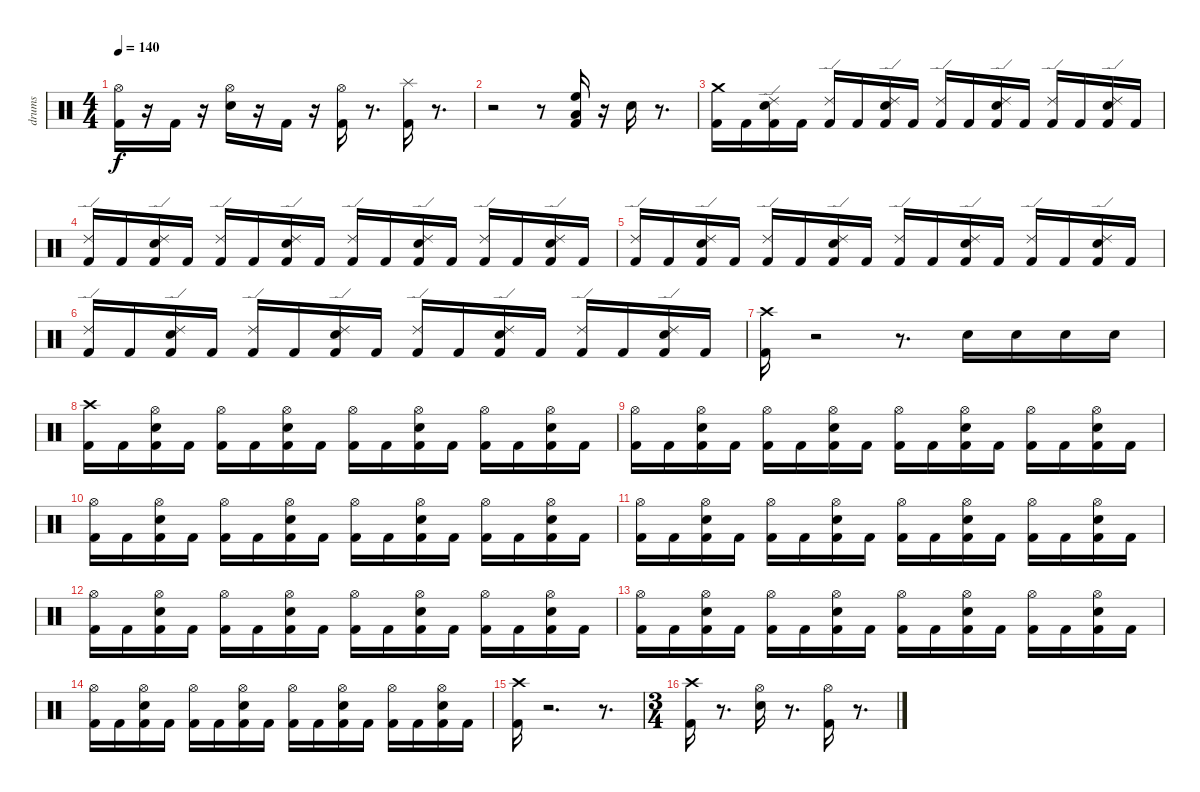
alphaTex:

\track ("drums" "drums") {instrument percussion}
\staff {score}
\articulation defaults
\ts (4 4)
\tempo 140
\clef neutral
\ks c
("Hi-Hat (open)" "Kick (hit) 2").16{dy f} r.16 "Kick (hit) 2".16 r.16 ("Hi-Hat (open)" "Snare (hit) 2").16 r.16 "Kick (hit) 2".16 r.16 ("Hi-Hat (open)" "Kick (hit) 2").16 r.8{d} ("Splash (hit)" "Kick (hit) 2").16 r.8{d} |
r.2 r.8 ("High Floor Tom (hit)" "Low Tom (hit)" "Kick (hit) 2").16 r.16 "Snare (hit) 2".16 r.8{d} |
("Crash medium (hit)" "Kick (hit) 2").16 "Kick (hit) 2".16 ("Kick (hit) 2" "Ride (edge) 2" "Snare (hit) 2").16 "Kick (hit) 2".16 ("Ride (edge) 2" "Kick (hit) 2").16 "Kick (hit) 2".16 ("Kick (hit) 2" "Ride (edge) 2" "Snare (hit) 2").16 "Kick (hit) 2".16 ("Ride (edge) 2" "Kick (hit) 2").16 "Kick (hit) 2".16 ("Kick (hit) 2" "Ride (edge) 2" "Snare (hit) 2").16 "Kick (hit) 2".16 ("Ride (edge) 2" "Kick (hit) 2").16 "Kick (hit) 2".16 ("Kick (hit) 2" "Ride (edge) 2" "Snare (hit) 2").16 "Kick (hit) 2".16 |
("Ride (edge) 2" "Kick (hit) 2").16 "Kick (hit) 2".16 ("Kick (hit) 2" "Ride (edge) 2" "Snare (hit) 2").16 "Kick (hit) 2".16 ("Ride (edge) 2" "Kick (hit) 2").16 "Kick (hit) 2".16 ("Kick (hit) 2" "Ride (edge) 2" "Snare (hit) 2").16 "Kick (hit) 2".16 ("Ride (edge) 2" "Kick (hit) 2").16 "Kick (hit) 2".16 ("Kick (hit) 2" "Ride (edge) 2" "Snare (hit) 2").16 "Kick (hit) 2".16 ("Ride (edge) 2" "Kick (hit) 2").16 "Kick (hit) 2".16 ("Kick (hit) 2" "Ride (edge) 2" "Snare (hit) 2").16 "Kick (hit) 2".16 |
("Ride (edge) 2" "Kick (hit) 2").16 "Kick (hit) 2".16 ("Kick (hit) 2" "Ride (edge) 2" "Snare (hit) 2").16 "Kick (hit) 2".16 ("Ride (edge) 2" "Kick (hit) 2").16 "Kick (hit) 2".16 ("Kick (hit) 2" "Ride (edge) 2" "Snare (hit) 2").16 "Kick (hit) 2".16 ("Ride (edge) 2" "Kick (hit) 2").16 "Kick (hit) 2".16 ("Kick (hit) 2" "Ride (edge) 2" "Snare (hit) 2").16 "Kick (hit) 2".16 ("Ride (edge) 2" "Kick (hit) 2").16 "Kick (hit) 2".16 ("Kick (hit) 2" "Ride (edge) 2" "Snare (hit) 2").16 "Kick (hit) 2".16 |
("Ride (edge) 2" "Kick (hit) 2").16 "Kick (hit) 2".16 ("Kick (hit) 2" "Ride (edge) 2" "Snare (hit) 2").16 "Kick (hit) 2".16 ("Ride (edge) 2" "Kick (hit) 2").16 "Kick (hit) 2".16 ("Kick (hit) 2" "Ride (edge) 2" "Snare (hit) 2").16 "Kick (hit) 2".16 ("Ride (edge) 2" "Kick (hit) 2").16 "Kick (hit) 2".16 ("Kick (hit) 2" "Ride (edge) 2" "Snare (hit) 2").16 "Kick (hit) 2".16 ("Ride (edge) 2" "Kick (hit) 2").16 "Kick (hit) 2".16 ("Kick (hit) 2" "Ride (edge) 2" "Snare (hit) 2").16 "Kick (hit) 2".16 |
("Crash high (hit)" "Kick (hit) 2").16 r.2 r.8{d} "Snare (hit) 2".16 "Snare (hit) 2".16 "Snare (hit) 2".16 "Snare (hit) 2".16 |
("Crash high (hit)" "Kick (hit) 2").16 "Kick (hit) 2".16 ("Hi-Hat (open)" "Kick (hit) 2" "Snare (hit) 2").16 "Kick (hit) 2".16 ("Hi-Hat (open)" "Kick (hit) 2").16 "Kick (hit) 2".16 ("Hi-Hat (open)" "Kick (hit) 2" "Snare (hit) 2").16 "Kick (hit) 2".16 ("Hi-Hat (open)" "Kick (hit) 2").16 "Kick (hit) 2".16 ("Hi-Hat (open)" "Kick (hit) 2" "Snare (hit) 2").16 "Kick (hit) 2".16 ("Hi-Hat (open)" "Kick (hit) 2").16 "Kick (hit) 2".16 ("Hi-Hat (open)" "Kick (hit) 2" "Snare (hit) 2").16 "Kick (hit) 2".16 |
("Hi-Hat (open)" "Kick (hit) 2").16 "Kick (hit) 2".16 ("Hi-Hat (open)" "Kick (hit) 2" "Snare (hit) 2").16 "Kick (hit) 2".16 ("Hi-Hat (open)" "Kick (hit) 2").16 "Kick (hit) 2".16 ("Hi-Hat (open)" "Kick (hit) 2" "Snare (hit) 2").16 "Kick (hit) 2".16 ("Hi-Hat (open)" "Kick (hit) 2").16 "Kick (hit) 2".16 ("Hi-Hat (open)" "Kick (hit) 2" "Snare (hit) 2").16 "Kick (hit) 2".16 ("Hi-Hat (open)" "Kick (hit) 2").16 "Kick (hit) 2".16 ("Hi-Hat (open)" "Kick (hit) 2" "Snare (hit) 2").16 "Kick (hit) 2".16 |
("Hi-Hat (open)" "Kick (hit) 2").16 "Kick (hit) 2".16 ("Hi-Hat (open)" "Kick (hit) 2" "Snare (hit) 2").16 "Kick (hit) 2".16 ("Hi-Hat (open)" "Kick (hit) 2").16 "Kick (hit) 2".16 ("Hi-Hat (open)" "Kick (hit) 2" "Snare (hit) 2").16 "Kick (hit) 2".16 ("Hi-Hat (open)" "Kick (hit) 2").16 "Kick (hit) 2".16 ("Hi-Hat (open)" "Kick (hit) 2" "Snare (hit) 2").16 "Kick (hit) 2".16 ("Hi-Hat (open)" "Kick (hit) 2").16 "Kick (hit) 2".16 ("Hi-Hat (open)" "Kick (hit) 2" "Snare (hit) 2").16 "Kick (hit) 2".16 |
("Hi-Hat (open)" "Kick (hit) 2").16 "Kick (hit) 2".16 ("Hi-Hat (open)" "Kick (hit) 2" "Snare (hit) 2").16 "Kick (hit) 2".16 ("Hi-Hat (open)" "Kick (hit) 2").16 "Kick (hit) 2".16 ("Hi-Hat (open)" "Kick (hit) 2" "Snare (hit) 2").16 "Kick (hit) 2".16 ("Hi-Hat (open)" "Kick (hit) 2").16 "Kick (hit) 2".16 ("Hi-Hat (open)" "Kick (hit) 2" "Snare (hit) 2").16 "Kick (hit) 2".16 ("Hi-Hat (open)" "Kick (hit) 2").16 "Kick (hit) 2".16 ("Hi-Hat (open)" "Kick (hit) 2" "Snare (hit) 2").16 "Kick (hit) 2".16 |
("Hi-Hat (open)" "Kick (hit) 2").16 "Kick (hit) 2".16 ("Hi-Hat (open)" "Kick (hit) 2" "Snare (hit) 2").16 "Kick (hit) 2".16 ("Hi-Hat (open)" "Kick (hit) 2").16 "Kick (hit) 2".16 ("Hi-Hat (open)" "Kick (hit) 2" "Snare (hit) 2").16 "Kick (hit) 2".16 ("Hi-Hat (open)" "Kick (hit) 2").16 "Kick (hit) 2".16 ("Hi-Hat (open)" "Kick (hit) 2" "Snare (hit) 2").16 "Kick (hit) 2".16 ("Hi-Hat (open)" "Kick (hit) 2").16 "Kick (hit) 2".16 ("Hi-Hat (open)" "Kick (hit) 2" "Snare (hit) 2").16 "Kick (hit) 2".16 |
("Hi-Hat (open)" "Kick (hit) 2").16 "Kick (hit) 2".16 ("Hi-Hat (open)" "Kick (hit) 2" "Snare (hit) 2").16 "Kick (hit) 2".16 ("Hi-Hat (open)" "Kick (hit) 2").16 "Kick (hit) 2".16 ("Hi-Hat (open)" "Kick (hit) 2" "Snare (hit) 2").16 "Kick (hit) 2".16 ("Hi-Hat (open)" "Kick (hit) 2").16 "Kick (hit) 2".16 ("Hi-Hat (open)" "Kick (hit) 2" "Snare (hit) 2").16 "Kick (hit) 2".16 ("Hi-Hat (open)" "Kick (hit) 2").16 "Kick (hit) 2".16 ("Hi-Hat (open)" "Kick (hit) 2" "Snare (hit) 2").16 "Kick (hit) 2".16 |
("Hi-Hat (open)" "Kick (hit) 2").16 "Kick (hit) 2".16 ("Hi-Hat (open)" "Kick (hit) 2" "Snare (hit) 2").16 "Kick (hit) 2".16 ("Hi-Hat (open)" "Kick (hit) 2").16 "Kick (hit) 2".16 ("Hi-Hat (open)" "Kick (hit) 2" "Snare (hit) 2").16 "Kick (hit) 2".16 ("Hi-Hat (open)" "Kick (hit) 2").16 "Kick (hit) 2".16 ("Hi-Hat (open)" "Kick (hit) 2" "Snare (hit) 2").16 "Kick (hit) 2".16 ("Hi-Hat (open)" "Kick (hit) 2").16 "Kick (hit) 2".16 ("Hi-Hat (open)" "Kick (hit) 2" "Snare (hit) 2").16 "Kick (hit) 2".16 |
("Crash high (hit)" "Kick (hit) 2").16 r.2{d} r.8{d} |
\ts (3 4)
("Crash high (hit)" "Kick (hit) 2").16 r.8{d} ("Hi-Hat (open)" "Snare (hit) 2").16 r.8{d} ("Hi-Hat (open)" "Kick (hit) 2").16 r.8{d}
